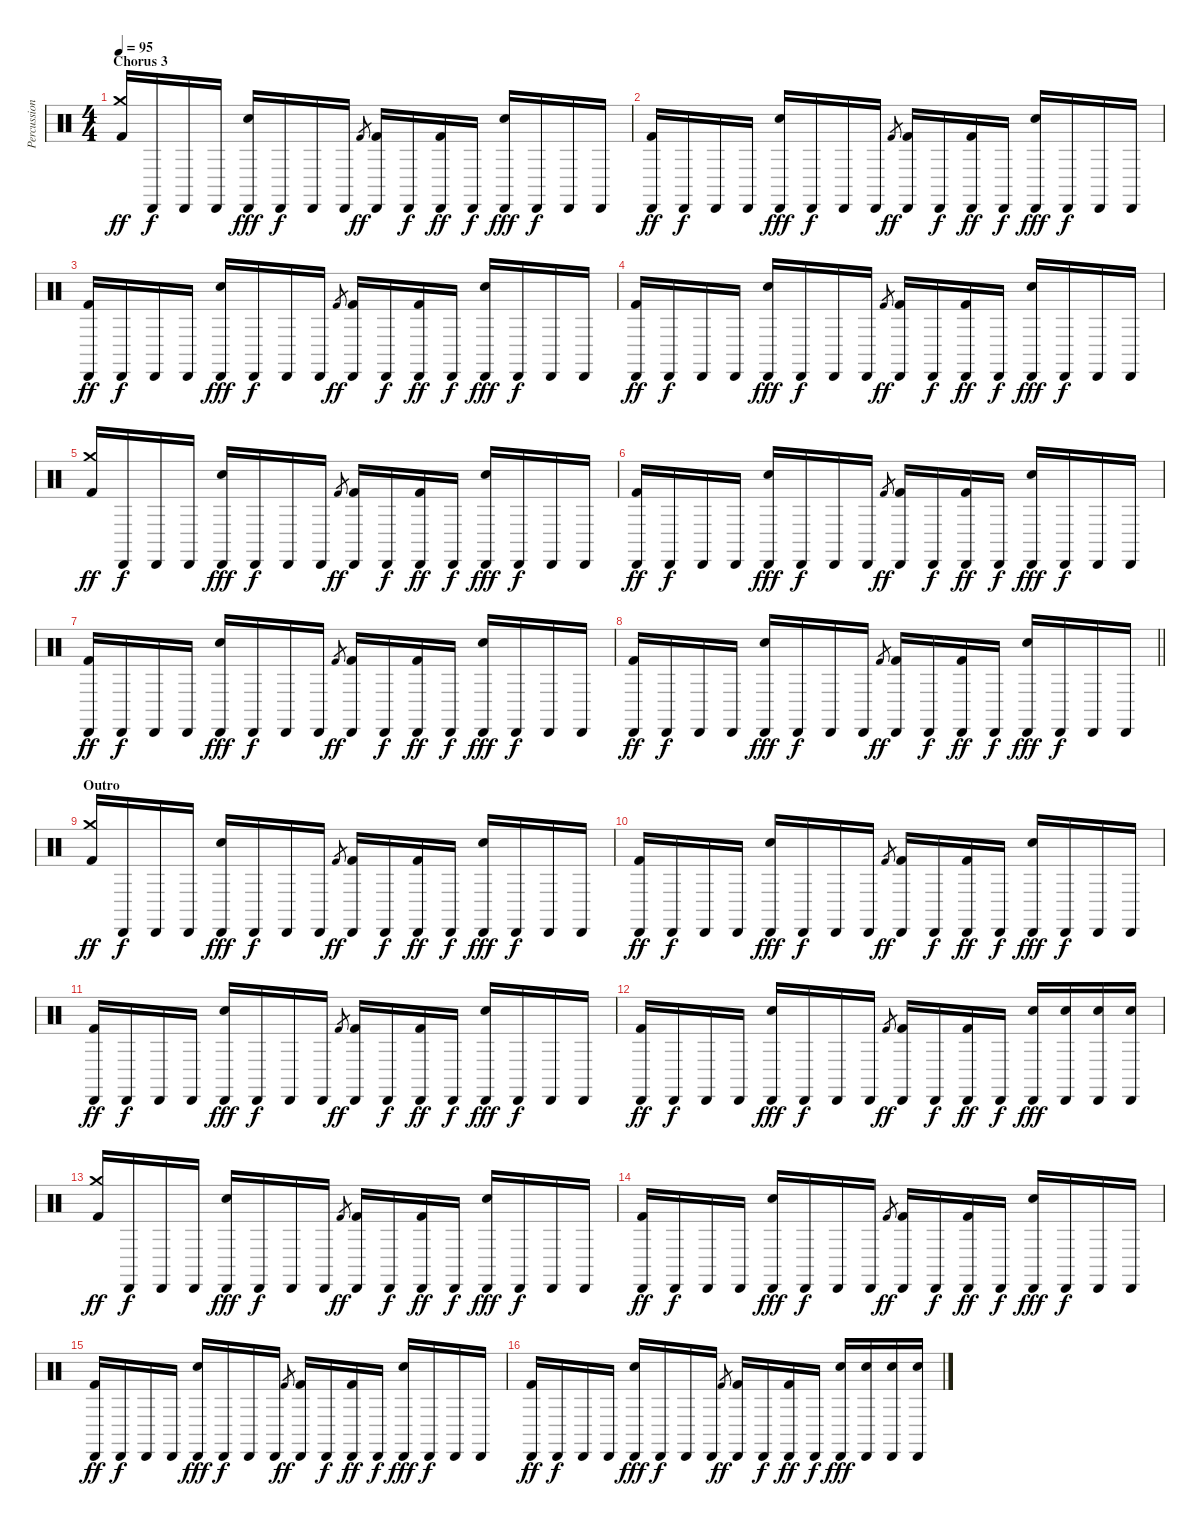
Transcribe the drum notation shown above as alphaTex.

\track ("Percussion" "Percussion") {instrument percussion}
\staff {score}
\articulation defaults
\ts (4 4)
\section ("" "Chorus 3")
\tempo 95
\clef neutral
\ks c
("Crash medium (hit)" "Kick (hit) 2").16{dy ff} "Cabasa (hit)".16{dy f} "Cabasa (hit)".16 "Cabasa (hit)".16 ("Cabasa (hit)" "Electric Snare (hit)").16{dy fff} "Cabasa (hit)".16{dy f} "Cabasa (hit)".16 "Cabasa (hit)".16 "Kick (hit) 2".8{gr dy ff} ("Cabasa (hit)" "Kick (hit) 2").16 "Cabasa (hit)".16{dy f} ("Cabasa (hit)" "Kick (hit) 2").16{dy ff} "Cabasa (hit)".16{dy f} ("Cabasa (hit)" "Electric Snare (hit)").16{dy fff} "Cabasa (hit)".16{dy f} "Cabasa (hit)".16 "Cabasa (hit)".16 |
("Cabasa (hit)" "Kick (hit) 2").16{dy ff} "Cabasa (hit)".16{dy f} "Cabasa (hit)".16 "Cabasa (hit)".16 ("Cabasa (hit)" "Electric Snare (hit)").16{dy fff} "Cabasa (hit)".16{dy f} "Cabasa (hit)".16 "Cabasa (hit)".16 "Kick (hit) 2".8{gr dy ff} ("Cabasa (hit)" "Kick (hit) 2").16 "Cabasa (hit)".16{dy f} ("Cabasa (hit)" "Kick (hit) 2").16{dy ff} "Cabasa (hit)".16{dy f} ("Cabasa (hit)" "Electric Snare (hit)").16{dy fff} "Cabasa (hit)".16{dy f} "Cabasa (hit)".16 "Cabasa (hit)".16 |
("Cabasa (hit)" "Kick (hit) 2").16{dy ff} "Cabasa (hit)".16{dy f} "Cabasa (hit)".16 "Cabasa (hit)".16 ("Cabasa (hit)" "Electric Snare (hit)").16{dy fff} "Cabasa (hit)".16{dy f} "Cabasa (hit)".16 "Cabasa (hit)".16 "Kick (hit) 2".8{gr dy ff} ("Cabasa (hit)" "Kick (hit) 2").16 "Cabasa (hit)".16{dy f} ("Cabasa (hit)" "Kick (hit) 2").16{dy ff} "Cabasa (hit)".16{dy f} ("Cabasa (hit)" "Electric Snare (hit)").16{dy fff} "Cabasa (hit)".16{dy f} "Cabasa (hit)".16 "Cabasa (hit)".16 |
("Cabasa (hit)" "Kick (hit) 2").16{dy ff} "Cabasa (hit)".16{dy f} "Cabasa (hit)".16 "Cabasa (hit)".16 ("Cabasa (hit)" "Electric Snare (hit)").16{dy fff} "Cabasa (hit)".16{dy f} "Cabasa (hit)".16 "Cabasa (hit)".16 "Kick (hit) 2".8{gr dy ff} ("Cabasa (hit)" "Kick (hit) 2").16 "Cabasa (hit)".16{dy f} ("Cabasa (hit)" "Kick (hit) 2").16{dy ff} "Cabasa (hit)".16{dy f} ("Cabasa (hit)" "Electric Snare (hit)").16{dy fff} "Cabasa (hit)".16{dy f} "Cabasa (hit)".16 "Cabasa (hit)".16 |
("Crash medium (hit)" "Kick (hit) 2").16{dy ff} "Cabasa (hit)".16{dy f} "Cabasa (hit)".16 "Cabasa (hit)".16 ("Cabasa (hit)" "Electric Snare (hit)").16{dy fff} "Cabasa (hit)".16{dy f} "Cabasa (hit)".16 "Cabasa (hit)".16 "Kick (hit) 2".8{gr dy ff} ("Cabasa (hit)" "Kick (hit) 2").16 "Cabasa (hit)".16{dy f} ("Cabasa (hit)" "Kick (hit) 2").16{dy ff} "Cabasa (hit)".16{dy f} ("Cabasa (hit)" "Electric Snare (hit)").16{dy fff} "Cabasa (hit)".16{dy f} "Cabasa (hit)".16 "Cabasa (hit)".16 |
("Cabasa (hit)" "Kick (hit) 2").16{dy ff} "Cabasa (hit)".16{dy f} "Cabasa (hit)".16 "Cabasa (hit)".16 ("Cabasa (hit)" "Electric Snare (hit)").16{dy fff} "Cabasa (hit)".16{dy f} "Cabasa (hit)".16 "Cabasa (hit)".16 "Kick (hit) 2".8{gr dy ff} ("Cabasa (hit)" "Kick (hit) 2").16 "Cabasa (hit)".16{dy f} ("Cabasa (hit)" "Kick (hit) 2").16{dy ff} "Cabasa (hit)".16{dy f} ("Cabasa (hit)" "Electric Snare (hit)").16{dy fff} "Cabasa (hit)".16{dy f} "Cabasa (hit)".16 "Cabasa (hit)".16 |
("Cabasa (hit)" "Kick (hit) 2").16{dy ff} "Cabasa (hit)".16{dy f} "Cabasa (hit)".16 "Cabasa (hit)".16 ("Cabasa (hit)" "Electric Snare (hit)").16{dy fff} "Cabasa (hit)".16{dy f} "Cabasa (hit)".16 "Cabasa (hit)".16 "Kick (hit) 2".8{gr dy ff} ("Cabasa (hit)" "Kick (hit) 2").16 "Cabasa (hit)".16{dy f} ("Cabasa (hit)" "Kick (hit) 2").16{dy ff} "Cabasa (hit)".16{dy f} ("Cabasa (hit)" "Electric Snare (hit)").16{dy fff} "Cabasa (hit)".16{dy f} "Cabasa (hit)".16 "Cabasa (hit)".16 |
\barLineRight lightlight
("Cabasa (hit)" "Kick (hit) 2").16{dy ff} "Cabasa (hit)".16{dy f} "Cabasa (hit)".16 "Cabasa (hit)".16 ("Cabasa (hit)" "Electric Snare (hit)").16{dy fff} "Cabasa (hit)".16{dy f} "Cabasa (hit)".16 "Cabasa (hit)".16 "Kick (hit) 2".8{gr dy ff} ("Cabasa (hit)" "Kick (hit) 2").16 "Cabasa (hit)".16{dy f} ("Cabasa (hit)" "Kick (hit) 2").16{dy ff} "Cabasa (hit)".16{dy f} ("Cabasa (hit)" "Electric Snare (hit)").16{dy fff} "Cabasa (hit)".16{dy f} "Cabasa (hit)".16 "Cabasa (hit)".16 |
\section ("" "Outro")
("Crash medium (hit)" "Kick (hit) 2").16{dy ff} "Cabasa (hit)".16{dy f} "Cabasa (hit)".16 "Cabasa (hit)".16 ("Cabasa (hit)" "Electric Snare (hit)").16{dy fff} "Cabasa (hit)".16{dy f} "Cabasa (hit)".16 "Cabasa (hit)".16 "Kick (hit) 2".8{gr dy ff} ("Cabasa (hit)" "Kick (hit) 2").16 "Cabasa (hit)".16{dy f} ("Cabasa (hit)" "Kick (hit) 2").16{dy ff} "Cabasa (hit)".16{dy f} ("Cabasa (hit)" "Electric Snare (hit)").16{dy fff} "Cabasa (hit)".16{dy f} "Cabasa (hit)".16 "Cabasa (hit)".16 |
("Cabasa (hit)" "Kick (hit) 2").16{dy ff} "Cabasa (hit)".16{dy f} "Cabasa (hit)".16 "Cabasa (hit)".16 ("Cabasa (hit)" "Electric Snare (hit)").16{dy fff} "Cabasa (hit)".16{dy f} "Cabasa (hit)".16 "Cabasa (hit)".16 "Kick (hit) 2".8{gr dy ff} ("Cabasa (hit)" "Kick (hit) 2").16 "Cabasa (hit)".16{dy f} ("Cabasa (hit)" "Kick (hit) 2").16{dy ff} "Cabasa (hit)".16{dy f} ("Cabasa (hit)" "Electric Snare (hit)").16{dy fff} "Cabasa (hit)".16{dy f} "Cabasa (hit)".16 "Cabasa (hit)".16 |
("Cabasa (hit)" "Kick (hit) 2").16{dy ff} "Cabasa (hit)".16{dy f} "Cabasa (hit)".16 "Cabasa (hit)".16 ("Cabasa (hit)" "Electric Snare (hit)").16{dy fff} "Cabasa (hit)".16{dy f} "Cabasa (hit)".16 "Cabasa (hit)".16 "Kick (hit) 2".8{gr dy ff} ("Cabasa (hit)" "Kick (hit) 2").16 "Cabasa (hit)".16{dy f} ("Cabasa (hit)" "Kick (hit) 2").16{dy ff} "Cabasa (hit)".16{dy f} ("Cabasa (hit)" "Electric Snare (hit)").16{dy fff} "Cabasa (hit)".16{dy f} "Cabasa (hit)".16 "Cabasa (hit)".16 |
("Cabasa (hit)" "Kick (hit) 2").16{dy ff} "Cabasa (hit)".16{dy f} "Cabasa (hit)".16 "Cabasa (hit)".16 ("Cabasa (hit)" "Electric Snare (hit)").16{dy fff} "Cabasa (hit)".16{dy f} "Cabasa (hit)".16 "Cabasa (hit)".16 "Kick (hit) 2".8{gr dy ff} ("Cabasa (hit)" "Kick (hit) 2").16 "Cabasa (hit)".16{dy f} ("Cabasa (hit)" "Kick (hit) 2").16{dy ff} "Cabasa (hit)".16{dy f} ("Cabasa (hit)" "Electric Snare (hit)").16{dy fff} ("Cabasa (hit)" "Electric Snare (hit)").16 ("Cabasa (hit)" "Electric Snare (hit)").16 ("Cabasa (hit)" "Electric Snare (hit)").16 |
("Crash medium (hit)" "Kick (hit) 2").16{dy ff} "Cabasa (hit)".16{dy f} "Cabasa (hit)".16 "Cabasa (hit)".16 ("Cabasa (hit)" "Electric Snare (hit)").16{dy fff} "Cabasa (hit)".16{dy f} "Cabasa (hit)".16 "Cabasa (hit)".16 "Kick (hit) 2".8{gr dy ff} ("Cabasa (hit)" "Kick (hit) 2").16 "Cabasa (hit)".16{dy f} ("Cabasa (hit)" "Kick (hit) 2").16{dy ff} "Cabasa (hit)".16{dy f} ("Cabasa (hit)" "Electric Snare (hit)").16{dy fff} "Cabasa (hit)".16{dy f} "Cabasa (hit)".16 "Cabasa (hit)".16 |
("Cabasa (hit)" "Kick (hit) 2").16{dy ff} "Cabasa (hit)".16{dy f} "Cabasa (hit)".16 "Cabasa (hit)".16 ("Cabasa (hit)" "Electric Snare (hit)").16{dy fff} "Cabasa (hit)".16{dy f} "Cabasa (hit)".16 "Cabasa (hit)".16 "Kick (hit) 2".8{gr dy ff} ("Cabasa (hit)" "Kick (hit) 2").16 "Cabasa (hit)".16{dy f} ("Cabasa (hit)" "Kick (hit) 2").16{dy ff} "Cabasa (hit)".16{dy f} ("Cabasa (hit)" "Electric Snare (hit)").16{dy fff} "Cabasa (hit)".16{dy f} "Cabasa (hit)".16 "Cabasa (hit)".16 |
("Cabasa (hit)" "Kick (hit) 2").16{dy ff} "Cabasa (hit)".16{dy f} "Cabasa (hit)".16 "Cabasa (hit)".16 ("Cabasa (hit)" "Electric Snare (hit)").16{dy fff} "Cabasa (hit)".16{dy f} "Cabasa (hit)".16 "Cabasa (hit)".16 "Kick (hit) 2".8{gr dy ff} ("Cabasa (hit)" "Kick (hit) 2").16 "Cabasa (hit)".16{dy f} ("Cabasa (hit)" "Kick (hit) 2").16{dy ff} "Cabasa (hit)".16{dy f} ("Cabasa (hit)" "Electric Snare (hit)").16{dy fff} "Cabasa (hit)".16{dy f} "Cabasa (hit)".16 "Cabasa (hit)".16 |
("Cabasa (hit)" "Kick (hit) 2").16{dy ff} "Cabasa (hit)".16{dy f} "Cabasa (hit)".16 "Cabasa (hit)".16 ("Cabasa (hit)" "Electric Snare (hit)").16{dy fff} "Cabasa (hit)".16{dy f} "Cabasa (hit)".16 "Cabasa (hit)".16 "Kick (hit) 2".8{gr dy ff} ("Cabasa (hit)" "Kick (hit) 2").16 "Cabasa (hit)".16{dy f} ("Cabasa (hit)" "Kick (hit) 2").16{dy ff} "Cabasa (hit)".16{dy f} ("Cabasa (hit)" "Electric Snare (hit)").16{dy fff} ("Cabasa (hit)" "Electric Snare (hit)").16 ("Cabasa (hit)" "Electric Snare (hit)").16 ("Cabasa (hit)" "Electric Snare (hit)").16
